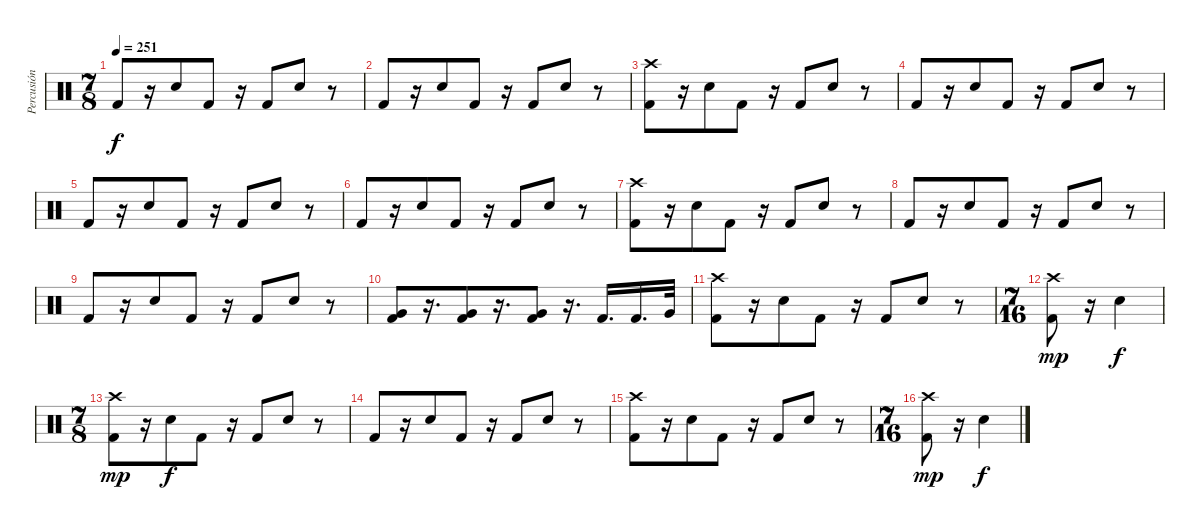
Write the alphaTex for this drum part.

\track ("Percusión" "Percusión") {instrument percussion}
\staff {score}
\articulation defaults
\ts (7 8)
\tempo 251
\clef neutral
\ks c "Kick (hit) 2".8{dy f}
r.16 "Snare (hit) 2".8 "Kick (hit) 2".8 r.16 "Kick (hit) 2".8 "Snare (hit) 2".8 r.8 |
"Kick (hit) 2".8 r.16 "Snare (hit) 2".8 "Kick (hit) 2".8 r.16 "Kick (hit) 2".8 "Snare (hit) 2".8 r.8 |
("Crash high (hit)" "Kick (hit) 2").8 r.16 "Snare (hit) 2".8 "Kick (hit) 2".8 r.16 "Kick (hit) 2".8 "Snare (hit) 2".8 r.8 |
"Kick (hit) 2".8 r.16 "Snare (hit) 2".8 "Kick (hit) 2".8 r.16 "Kick (hit) 2".8 "Snare (hit) 2".8 r.8 |
"Kick (hit) 2".8 r.16 "Snare (hit) 2".8 "Kick (hit) 2".8 r.16 "Kick (hit) 2".8 "Snare (hit) 2".8 r.8 |
"Kick (hit) 2".8 r.16 "Snare (hit) 2".8 "Kick (hit) 2".8 r.16 "Kick (hit) 2".8 "Snare (hit) 2".8 r.8 |
("Crash high (hit)" "Kick (hit) 2").8 r.16 "Snare (hit) 2".8 "Kick (hit) 2".8 r.16 "Kick (hit) 2".8 "Snare (hit) 2".8 r.8 |
"Kick (hit) 2".8 r.16 "Snare (hit) 2".8 "Kick (hit) 2".8 r.16 "Kick (hit) 2".8 "Snare (hit) 2".8 r.8 |
"Kick (hit) 2".8 r.16 "Snare (hit) 2".8 "Kick (hit) 2".8 r.16 "Kick (hit) 2".8 "Snare (hit) 2".8 r.8 |
("Kick (hit) 2" "Very Low Tom (hit)").8 r.16{d} ("Kick (hit) 2" "Very Low Tom (hit)").8 r.16{d} ("Kick (hit) 2" "Very Low Tom (hit)").8 r.16{d} "Kick (hit) 2".16{d} "Kick (hit) 2".16{d} "Very Low Tom (hit)".32 |
("Crash high (hit)" "Kick (hit) 2").8 r.16 "Snare (hit) 2".8 "Kick (hit) 2".8 r.16 "Kick (hit) 2".8 "Snare (hit) 2".8 r.8 |
\ts (7 16)
("Crash high (hit)" "Kick (hit) 2").8{dy mp} r.16 "Snare (hit) 2".4{dy f} |
\ts (7 8)
("Crash high (hit)" "Kick (hit) 2").8{dy mp} r.16 "Snare (hit) 2".8{dy f} "Kick (hit) 2".8 r.16 "Kick (hit) 2".8 "Snare (hit) 2".8 r.8 |
"Kick (hit) 2".8 r.16 "Snare (hit) 2".8 "Kick (hit) 2".8 r.16 "Kick (hit) 2".8 "Snare (hit) 2".8 r.8 |
("Crash high (hit)" "Kick (hit) 2").8 r.16 "Snare (hit) 2".8 "Kick (hit) 2".8 r.16 "Kick (hit) 2".8 "Snare (hit) 2".8 r.8 |
\ts (7 16)
("Crash high (hit)" "Kick (hit) 2").8{dy mp} r.16 "Snare (hit) 2".4{dy f}
